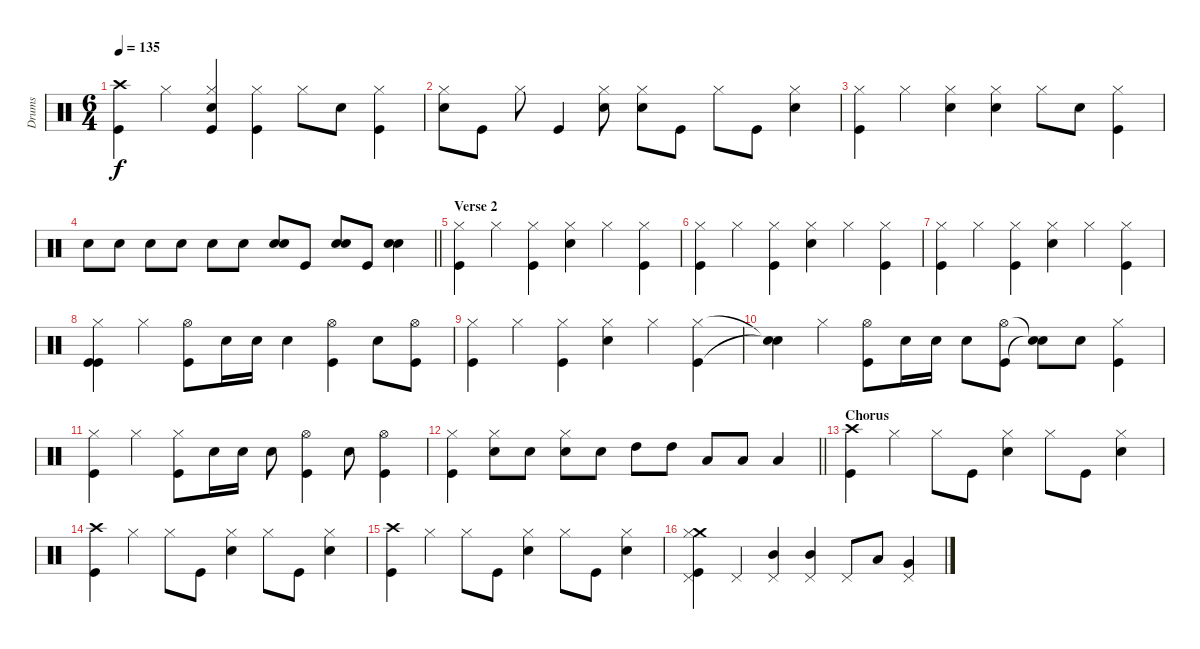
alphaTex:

\track ("Drums" "Drums") {instrument percussion}
\staff {score}
\articulation defaults
\ts (6 4)
\tempo 135
\clef neutral
\ks c
("Crash high (hit)" "Kick (hit)").4{dy f} "Hi-Hat (closed)".4 ("Hi-Hat (closed)" "Electric Snare (hit)" "Kick (hit)").4 ("Kick (hit)" "Hi-Hat (closed)").4 "Hi-Hat (closed)".8 "Electric Snare (hit)".8 ("Hi-Hat (closed)" "Kick (hit)").4 |
("Hi-Hat (closed)" "Electric Snare (hit)").8 "Kick (hit)".8 "Hi-Hat (closed)".8 "Kick (hit)".4 ("Hi-Hat (closed)" "Electric Snare (hit)").8 ("Hi-Hat (closed)" "Electric Snare (hit)").8 "Kick (hit)".8 "Hi-Hat (closed)".8 "Kick (hit)".8 ("Hi-Hat (closed)" "Electric Snare (hit)").4 |
("Hi-Hat (closed)" "Kick (hit)").4 "Hi-Hat (closed)".4 ("Hi-Hat (closed)" "Electric Snare (hit)").4 ("Hi-Hat (closed)" "Electric Snare (hit)").4 "Hi-Hat (closed)".8 "Electric Snare (hit)".8 ("Hi-Hat (closed)" "Kick (hit)").4 |
\barLineRight lightlight "Electric Snare (hit)".8 "Electric Snare (hit)".8 "Electric Snare (hit)".8 "Electric Snare (hit)".8 "Electric Snare (hit)".8 "Electric Snare (hit)".8
("Electric Snare (hit)" "Snare (hit) 2").8 "Kick (hit)".8 ("Electric Snare (hit)" "Snare (hit) 2").8 "Kick (hit)".8 ("Snare (hit) 2" "Electric Snare (hit)").4 |
\section ("" "Verse 2")
("Hi-Hat (closed)" "Kick (hit)").4 "Hi-Hat (closed)".4 ("Hi-Hat (closed)" "Kick (hit)").4 ("Hi-Hat (closed)" "Electric Snare (hit)").4 "Hi-Hat (closed)".4 ("Hi-Hat (closed)" "Kick (hit)").4 |
("Hi-Hat (closed)" "Kick (hit)").4 "Hi-Hat (closed)".4 ("Hi-Hat (closed)" "Kick (hit)").4 ("Hi-Hat (closed)" "Electric Snare (hit)").4 "Hi-Hat (closed)".4 ("Hi-Hat (closed)" "Kick (hit)").4 |
("Hi-Hat (closed)" "Kick (hit)").4 "Hi-Hat (closed)".4 ("Hi-Hat (closed)" "Kick (hit)").4 ("Hi-Hat (closed)" "Electric Snare (hit)").4 "Hi-Hat (closed)".4 ("Hi-Hat (closed)" "Kick (hit)").4 |
("Kick (hit)" "Hi-Hat (closed)" "Kick (hit)").4 "Hi-Hat (closed)".4 ("Hi-Hat (open)" "Kick (hit)").8 "Electric Snare (hit)".16 "Electric Snare (hit)".16 "Electric Snare (hit)".4 ("Kick (hit)" "Hi-Hat (open)").4 "Electric Snare (hit)".8 ("Hi-Hat (open)" "Kick (hit)").8 |
("Hi-Hat (closed)" "Kick (hit)").4 "Hi-Hat (closed)".4 ("Hi-Hat (closed)" "Kick (hit)").4 ("Hi-Hat (closed)" "Electric Snare (hit)").4 "Hi-Hat (closed)".4 ("Hi-Hat (closed)" "Kick (hit)").4 |
("Snare (hit)"{t} "Snare (hit)"{t}).4 "Hi-Hat (closed)".4 ("Hi-Hat (open)" "Kick (hit)").8 "Electric Snare (hit)".16 "Electric Snare (hit)".16 "Electric Snare (hit)".8 ("Kick (hit)" "Hi-Hat (open)").8 ("Snare (hit)"{t} "Snare (hit)"{t}).8 "Electric Snare (hit)".8 ("Hi-Hat (closed)" "Kick (hit)").4 |
("Hi-Hat (closed)" "Kick (hit)").4 "Hi-Hat (closed)".4 ("Hi-Hat (closed)" "Kick (hit)").8 "Electric Snare (hit)".16 "Electric Snare (hit)".16 "Electric Snare (hit)".8 ("Kick (hit)" "Hi-Hat (open)").4 "Electric Snare (hit)".8 ("Hi-Hat (open)" "Kick (hit)").4 |
\barLineRight lightlight
("Hi-Hat (closed)" "Kick (hit)").4 ("Electric Snare (hit)" "Hi-Hat (closed)").8 "Electric Snare (hit)".8 ("Electric Snare (hit)" "Hi-Hat (closed)").8 "Electric Snare (hit)".8 "High Tom (hit)".8 "High Tom (hit)".8 "Low Tom (hit)".8 "Low Tom (hit)".8 "Low Floor Tom (hit)".4 |
\section ("" "Chorus")
("Crash high (hit)" "Kick (hit)").4 "Hi-Hat (closed)".4 "Hi-Hat (closed)".8 "Kick (hit)".8 ("Hi-Hat (closed)" "Electric Snare (hit)").4 "Hi-Hat (closed)".8 "Kick (hit)".8 ("Hi-Hat (closed)" "Electric Snare (hit)").4 |
("Crash high (hit)" "Kick (hit)").4 "Hi-Hat (closed)".4 "Hi-Hat (closed)".8 "Kick (hit)".8 ("Hi-Hat (closed)" "Electric Snare (hit)").4 "Hi-Hat (closed)".8 "Kick (hit)".8 ("Hi-Hat (closed)" "Electric Snare (hit)").4 |
("Crash high (hit)" "Kick (hit)").4 "Hi-Hat (closed)".4 "Hi-Hat (closed)".8 "Kick (hit)".8 ("Hi-Hat (closed)" "Electric Snare (hit)").4 "Hi-Hat (closed)".8 "Kick (hit)".8 ("Hi-Hat (closed)" "Electric Snare (hit)").4 |
("Pedal Hi-Hat (hit)" "Crash medium (hit)" "Kick (hit)" "Hi-Hat (closed)").4 "Pedal Hi-Hat (hit)".4 ("Pedal Hi-Hat (hit)" "Mid Tom (hit)").4 ("Pedal Hi-Hat (hit)" "Mid Tom (hit)").4 "Pedal Hi-Hat (hit)".8 "Low Tom (hit)".8 ("Pedal Hi-Hat (hit)" "Very Low Tom (hit)").4
